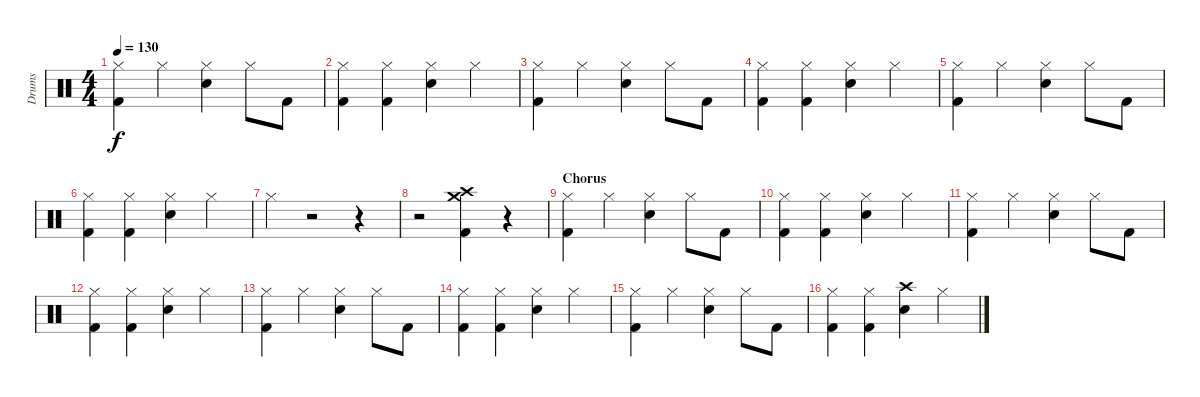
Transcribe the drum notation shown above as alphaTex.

\track ("Drums" "Drums") {instrument percussion}
\staff {score}
\articulation defaults
\ts (4 4)
\tempo 130
\clef neutral
\ks c
("Hi-Hat (closed)" "Kick (hit) 2").4{dy f} "Hi-Hat (closed)".4 ("Hi-Hat (closed)" "Snare (hit) 2").4 "Hi-Hat (closed)".8 "Kick (hit) 2".8 |
("Hi-Hat (closed)" "Kick (hit) 2").4 ("Hi-Hat (closed)" "Kick (hit) 2").4 ("Hi-Hat (closed)" "Snare (hit) 2").4 "Hi-Hat (closed)".4 |
("Hi-Hat (closed)" "Kick (hit) 2").4 "Hi-Hat (closed)".4 ("Hi-Hat (closed)" "Snare (hit) 2").4 "Hi-Hat (closed)".8 "Kick (hit) 2".8 |
("Hi-Hat (closed)" "Kick (hit) 2").4 ("Hi-Hat (closed)" "Kick (hit) 2").4 ("Hi-Hat (closed)" "Snare (hit) 2").4 "Hi-Hat (closed)".4 |
("Hi-Hat (closed)" "Kick (hit) 2").4 "Hi-Hat (closed)".4 ("Hi-Hat (closed)" "Snare (hit) 2").4 "Hi-Hat (closed)".8 "Kick (hit) 2".8 |
("Hi-Hat (closed)" "Kick (hit) 2").4 ("Hi-Hat (closed)" "Kick (hit) 2").4 ("Hi-Hat (closed)" "Snare (hit) 2").4 "Hi-Hat (closed)".4 |
"Hi-Hat (closed)".4 r.2 r.4 |
r.2 ("Crash medium (hit)" "Crash high (hit)" "Kick (hit) 2").4 r.4 |
\section ("" "Chorus")
("Hi-Hat (closed)" "Kick (hit) 2").4 "Hi-Hat (closed)".4 ("Hi-Hat (closed)" "Snare (hit) 2").4 "Hi-Hat (closed)".8 "Kick (hit) 2".8 |
("Hi-Hat (closed)" "Kick (hit) 2").4 ("Hi-Hat (closed)" "Kick (hit) 2").4 ("Hi-Hat (closed)" "Snare (hit) 2").4 "Hi-Hat (closed)".4 |
("Hi-Hat (closed)" "Kick (hit) 2").4 "Hi-Hat (closed)".4 ("Hi-Hat (closed)" "Snare (hit) 2").4 "Hi-Hat (closed)".8 "Kick (hit) 2".8 |
("Hi-Hat (closed)" "Kick (hit) 2").4 ("Hi-Hat (closed)" "Kick (hit) 2").4 ("Hi-Hat (closed)" "Snare (hit) 2").4 "Hi-Hat (closed)".4 |
("Hi-Hat (closed)" "Kick (hit) 2").4 "Hi-Hat (closed)".4 ("Hi-Hat (closed)" "Snare (hit) 2").4 "Hi-Hat (closed)".8 "Kick (hit) 2".8 |
("Hi-Hat (closed)" "Kick (hit) 2").4 ("Hi-Hat (closed)" "Kick (hit) 2").4 ("Hi-Hat (closed)" "Snare (hit) 2").4 "Hi-Hat (closed)".4 |
("Hi-Hat (closed)" "Kick (hit) 2").4 "Hi-Hat (closed)".4 ("Hi-Hat (closed)" "Snare (hit) 2").4 "Hi-Hat (closed)".8 "Kick (hit) 2".8 |
("Hi-Hat (closed)" "Kick (hit) 2").4 ("Hi-Hat (closed)" "Kick (hit) 2").4 ("Crash high (hit)" "Snare (hit) 2").4 "Hi-Hat (closed)".4
